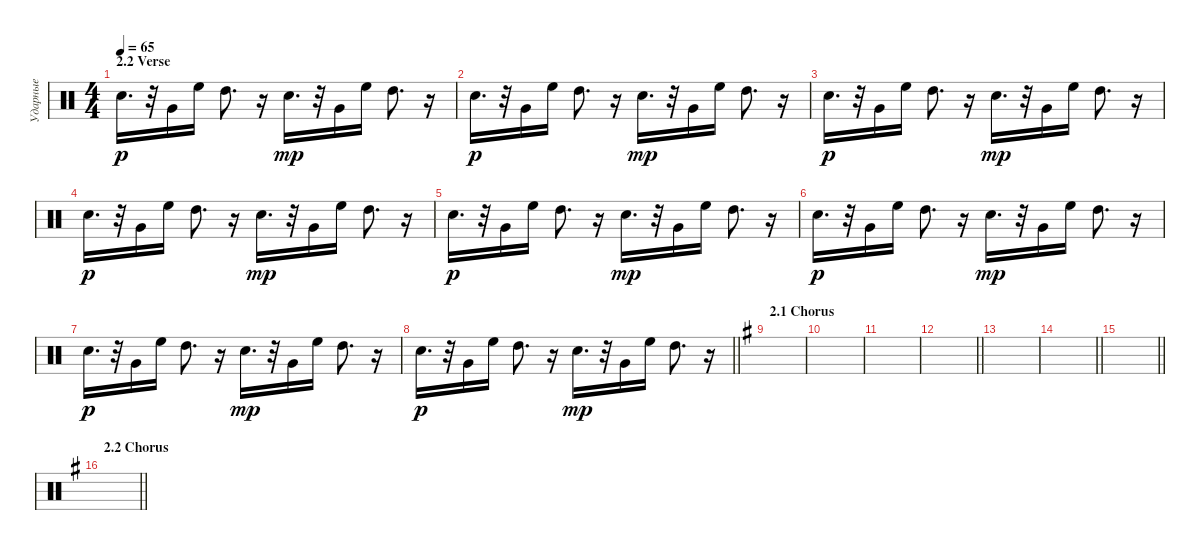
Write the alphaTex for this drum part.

\track ("Ударные" "Ударные") {instrument percussion}
\staff {score}
\articulation defaults
\ts (4 4)
\section ("" "2.2 Verse")
\tempo 65
\clef neutral
\ks c "Electric Snare (hit)".16{d dy p}
r.32 "Very Low Tom (hit)".16 "High Floor Tom (hit)".16 "High Tom (hit)".8{d} r.16 "Electric Snare (hit)".16{d dy mp} r.32 "Very Low Tom (hit)".16 "High Floor Tom (hit)".16 "High Tom (hit)".8{d} r.16 |
"Electric Snare (hit)".16{d dy p} r.32 "Very Low Tom (hit)".16 "High Floor Tom (hit)".16 "High Tom (hit)".8{d} r.16 "Electric Snare (hit)".16{d dy mp} r.32 "Very Low Tom (hit)".16 "High Floor Tom (hit)".16 "High Tom (hit)".8{d} r.16 |
"Electric Snare (hit)".16{d dy p} r.32 "Very Low Tom (hit)".16 "High Floor Tom (hit)".16 "High Tom (hit)".8{d} r.16 "Electric Snare (hit)".16{d dy mp} r.32 "Very Low Tom (hit)".16 "High Floor Tom (hit)".16 "High Tom (hit)".8{d} r.16 |
"Electric Snare (hit)".16{d dy p} r.32 "Very Low Tom (hit)".16 "High Floor Tom (hit)".16 "High Tom (hit)".8{d} r.16 "Electric Snare (hit)".16{d dy mp} r.32 "Very Low Tom (hit)".16 "High Floor Tom (hit)".16 "High Tom (hit)".8{d} r.16 |
"Electric Snare (hit)".16{d dy p} r.32 "Very Low Tom (hit)".16 "High Floor Tom (hit)".16 "High Tom (hit)".8{d} r.16 "Electric Snare (hit)".16{d dy mp} r.32 "Very Low Tom (hit)".16 "High Floor Tom (hit)".16 "High Tom (hit)".8{d} r.16 |
"Electric Snare (hit)".16{d dy p} r.32 "Very Low Tom (hit)".16 "High Floor Tom (hit)".16 "High Tom (hit)".8{d} r.16 "Electric Snare (hit)".16{d dy mp} r.32 "Very Low Tom (hit)".16 "High Floor Tom (hit)".16 "High Tom (hit)".8{d} r.16 |
"Electric Snare (hit)".16{d dy p} r.32 "Very Low Tom (hit)".16 "High Floor Tom (hit)".16 "High Tom (hit)".8{d} r.16 "Electric Snare (hit)".16{d dy mp} r.32 "Very Low Tom (hit)".16 "High Floor Tom (hit)".16 "High Tom (hit)".8{d} r.16 |
\barLineRight lightlight "Electric Snare (hit)".16{d dy p}
r.32 "Very Low Tom (hit)".16 "High Floor Tom (hit)".16 "High Tom (hit)".8{d} r.16 "Electric Snare (hit)".16{d dy mp} r.32 "Very Low Tom (hit)".16 "High Floor Tom (hit)".16 "High Tom (hit)".8{d} r.16 |
\section ("" "2.1 Chorus")
\ks eminor
|
|
|
\barLineRight lightlight
|
|
\barLineRight lightlight
|
\barLineRight lightlight
|
\section ("" "2.2 Chorus")
\barLineRight lightlight
